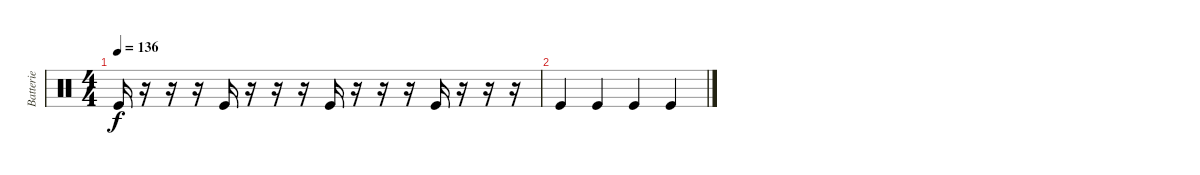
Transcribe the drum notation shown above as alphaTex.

\track ("Batterie" "Batterie") {instrument percussion}
\staff {score}
\articulation defaults
\ts (4 4)
\tempo 136
\clef neutral
\ks c "Kick (hit)".16{dy f}
r.16 r.16 r.16 "Kick (hit)".16 r.16 r.16 r.16 "Kick (hit)".16 r.16 r.16 r.16 "Kick (hit)".16 r.16 r.16 r.16 |
"Kick (hit)".4 "Kick (hit)".4 "Kick (hit)".4 "Kick (hit)".4
